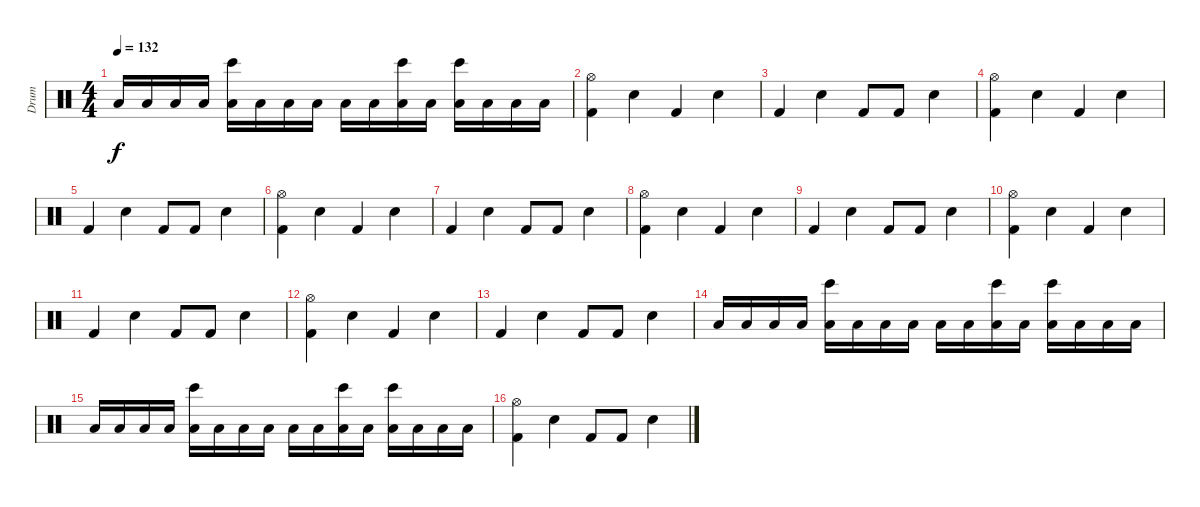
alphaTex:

\track ("Drum" "Drum") {instrument percussion}
\staff {score}
\articulation defaults
\ts (4 4)
\tempo 132
\clef neutral
\ks c "Low Tom (hit)".16{dy f} "Low Tom (hit)".16 "Low Tom (hit)".16 "Low Tom (hit)".16
("Bongo High (hit)" "Low Tom (hit)").16 "Low Tom (hit)".16 "Low Tom (hit)".16 "Low Tom (hit)".16 "Low Tom (hit)".16 "Low Tom (hit)".16 ("Bongo High (hit)" "Low Tom (hit)").16 "Low Tom (hit)".16 ("Bongo High (hit)" "Low Tom (hit)").16 "Low Tom (hit)".16 "Low Tom (hit)".16 "Low Tom (hit)".16 |
("Hi-Hat (open)" "Kick (hit) 2").4 "Snare (hit) 2".4 "Kick (hit) 2".4 "Snare (hit) 2".4 |
"Kick (hit) 2".4 "Snare (hit) 2".4 "Kick (hit) 2".8 "Kick (hit) 2".8 "Snare (hit) 2".4 |
("Hi-Hat (open)" "Kick (hit) 2").4 "Snare (hit) 2".4 "Kick (hit) 2".4 "Snare (hit) 2".4 |
"Kick (hit) 2".4 "Snare (hit) 2".4 "Kick (hit) 2".8 "Kick (hit) 2".8 "Snare (hit) 2".4 |
("Hi-Hat (open)" "Kick (hit) 2").4 "Snare (hit) 2".4 "Kick (hit) 2".4 "Snare (hit) 2".4 |
"Kick (hit) 2".4 "Snare (hit) 2".4 "Kick (hit) 2".8 "Kick (hit) 2".8 "Snare (hit) 2".4 |
("Hi-Hat (open)" "Kick (hit) 2").4 "Snare (hit) 2".4 "Kick (hit) 2".4 "Snare (hit) 2".4 |
"Kick (hit) 2".4 "Snare (hit) 2".4 "Kick (hit) 2".8 "Kick (hit) 2".8 "Snare (hit) 2".4 |
("Hi-Hat (open)" "Kick (hit) 2").4 "Snare (hit) 2".4 "Kick (hit) 2".4 "Snare (hit) 2".4 |
"Kick (hit) 2".4 "Snare (hit) 2".4 "Kick (hit) 2".8 "Kick (hit) 2".8 "Snare (hit) 2".4 |
("Hi-Hat (open)" "Kick (hit) 2").4 "Snare (hit) 2".4 "Kick (hit) 2".4 "Snare (hit) 2".4 |
"Kick (hit) 2".4 "Snare (hit) 2".4 "Kick (hit) 2".8 "Kick (hit) 2".8 "Snare (hit) 2".4 |
"Low Tom (hit)".16 "Low Tom (hit)".16 "Low Tom (hit)".16 "Low Tom (hit)".16 ("Bongo High (hit)" "Low Tom (hit)").16 "Low Tom (hit)".16 "Low Tom (hit)".16 "Low Tom (hit)".16 "Low Tom (hit)".16 "Low Tom (hit)".16 ("Bongo High (hit)" "Low Tom (hit)").16 "Low Tom (hit)".16 ("Bongo High (hit)" "Low Tom (hit)").16 "Low Tom (hit)".16 "Low Tom (hit)".16 "Low Tom (hit)".16 |
"Low Tom (hit)".16 "Low Tom (hit)".16 "Low Tom (hit)".16 "Low Tom (hit)".16 ("Bongo High (hit)" "Low Tom (hit)").16 "Low Tom (hit)".16 "Low Tom (hit)".16 "Low Tom (hit)".16 "Low Tom (hit)".16 "Low Tom (hit)".16 ("Bongo High (hit)" "Low Tom (hit)").16 "Low Tom (hit)".16 ("Bongo High (hit)" "Low Tom (hit)").16 "Low Tom (hit)".16 "Low Tom (hit)".16 "Low Tom (hit)".16 |
("Hi-Hat (open)" "Kick (hit) 2").4 "Snare (hit) 2".4 "Kick (hit) 2".8 "Kick (hit) 2".8 "Snare (hit) 2".4
